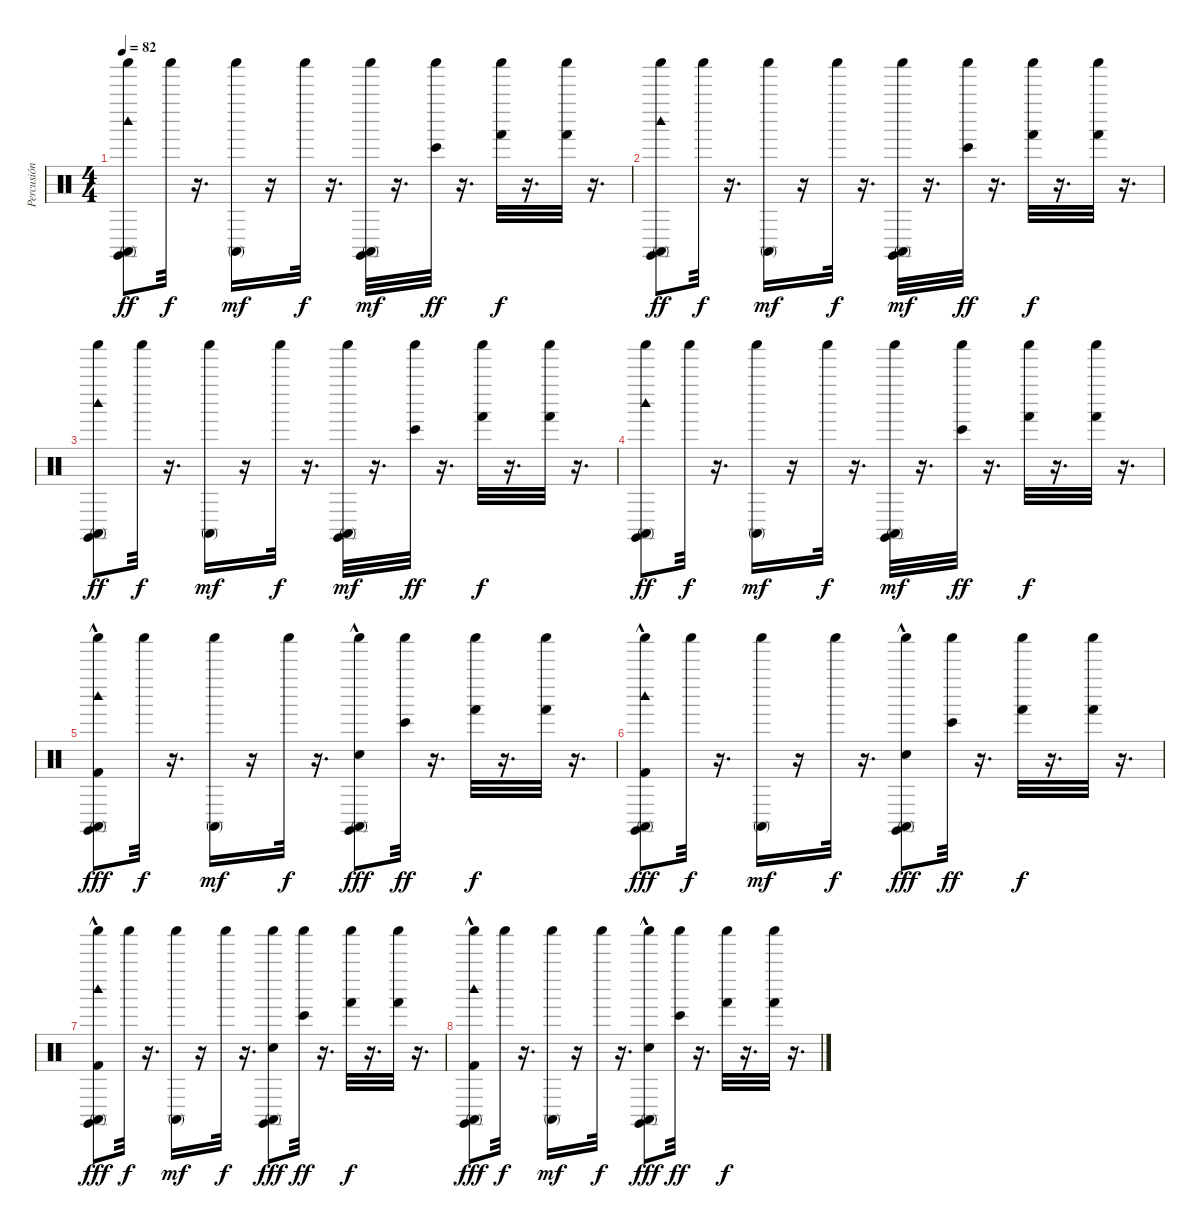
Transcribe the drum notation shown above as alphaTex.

\track ("Percusión" "Percusión") {instrument percussion}
\staff {score}
\articulation defaults
\ts (4 4)
\tempo 82
\clef neutral
\ks c
("Woodblock high (hit)" "Conga high (mute)" "Shaker (hit)" "Claves (hit)").8{dy ff} "Shaker (hit)".32{dy f} r.16{d} ("Shaker (hit)" "Conga high (mute)").16{dy mf} r.16 "Shaker (hit)".32{dy f} r.16{d} ("Claves (hit)" "Shaker (hit)" "Conga high (mute)").32{dy mf} r.16{d} ("Shaker (hit)" "Bongo High (hit)").32{dy ff} r.16{d} ("Shaker (hit)" "Hand (hit)").32{dy f} r.16{d} ("Shaker (hit)" "Hand (hit)").32 r.16{d} |
("Woodblock high (hit)" "Conga high (mute)" "Shaker (hit)" "Claves (hit)").8{dy ff} "Shaker (hit)".32{dy f} r.16{d} ("Shaker (hit)" "Conga high (mute)").16{dy mf} r.16 "Shaker (hit)".32{dy f} r.16{d} ("Claves (hit)" "Shaker (hit)" "Conga high (mute)").32{dy mf} r.16{d} ("Shaker (hit)" "Bongo High (hit)").32{dy ff} r.16{d} ("Shaker (hit)" "Hand (hit)").32{dy f} r.16{d} ("Shaker (hit)" "Hand (hit)").32 r.16{d} |
("Woodblock high (hit)" "Conga high (mute)" "Shaker (hit)" "Claves (hit)").8{dy ff} "Shaker (hit)".32{dy f} r.16{d} ("Shaker (hit)" "Conga high (mute)").16{dy mf} r.16 "Shaker (hit)".32{dy f} r.16{d} ("Claves (hit)" "Shaker (hit)" "Conga high (mute)").32{dy mf} r.16{d} ("Shaker (hit)" "Bongo High (hit)").32{dy ff} r.16{d} ("Shaker (hit)" "Hand (hit)").32{dy f} r.16{d} ("Shaker (hit)" "Hand (hit)").32 r.16{d} |
("Woodblock high (hit)" "Conga high (mute)" "Shaker (hit)" "Claves (hit)").8{dy ff} "Shaker (hit)".32{dy f} r.16{d} ("Shaker (hit)" "Conga high (mute)").16{dy mf} r.16 "Shaker (hit)".32{dy f} r.16{d} ("Claves (hit)" "Shaker (hit)" "Conga high (mute)").32{dy mf} r.16{d} ("Shaker (hit)" "Bongo High (hit)").32{dy ff} r.16{d} ("Shaker (hit)" "Hand (hit)").32{dy f} r.16{d} ("Shaker (hit)" "Hand (hit)").32 r.16{d} |
("Woodblock high (hit)" "Conga high (mute)" "Shaker (hit)" "Claves (hit)" "Kick (hit) 2"{hac}).8{dy fff} "Shaker (hit)".32{dy f} r.16{d} ("Shaker (hit)" "Conga high (mute)").16{dy mf} r.16 "Shaker (hit)".32{dy f} r.16{d} ("Claves (hit)" "Shaker (hit)" "Conga high (mute)" "Electric Snare (hit)"{hac}).8{dy fff} ("Shaker (hit)" "Bongo High (hit)").32{dy ff} r.16{d} ("Shaker (hit)" "Hand (hit)").32{dy f} r.16{d} ("Shaker (hit)" "Hand (hit)").32 r.16{d} |
("Woodblock high (hit)" "Conga high (mute)" "Shaker (hit)" "Claves (hit)" "Kick (hit) 2"{hac}).8{dy fff} "Shaker (hit)".32{dy f} r.16{d} ("Shaker (hit)" "Conga high (mute)").16{dy mf} r.16 "Shaker (hit)".32{dy f} r.16{d} ("Claves (hit)" "Shaker (hit)" "Conga high (mute)" "Electric Snare (hit)"{hac}).8{dy fff} ("Shaker (hit)" "Bongo High (hit)").32{dy ff} r.16{d} ("Shaker (hit)" "Hand (hit)").32{dy f} r.16{d} ("Shaker (hit)" "Hand (hit)").32 r.16{d} |
("Woodblock high (hit)" "Conga high (mute)" "Shaker (hit)" "Claves (hit)" "Kick (hit) 2"{hac}).8{dy fff} "Shaker (hit)".32{dy f} r.16{d} ("Shaker (hit)" "Conga high (mute)").16{dy mf} r.16 "Shaker (hit)".32{dy f} r.16{d} ("Claves (hit)" "Shaker (hit)" "Conga high (mute)" "Electric Snare (hit)").8{dy fff} ("Shaker (hit)" "Bongo High (hit)").32{dy ff} r.16{d} ("Shaker (hit)" "Hand (hit)").32{dy f} r.16{d} ("Shaker (hit)" "Hand (hit)").32 r.16{d} |
("Woodblock high (hit)" "Conga high (mute)" "Shaker (hit)" "Claves (hit)" "Kick (hit) 2"{hac}).8{dy fff} "Shaker (hit)".32{dy f} r.16{d} ("Shaker (hit)" "Conga high (mute)").16{dy mf} r.16 "Shaker (hit)".32{dy f} r.16{d} ("Claves (hit)" "Shaker (hit)" "Conga high (mute)" "Electric Snare (hit)"{hac}).8{dy fff} ("Shaker (hit)" "Bongo High (hit)").32{dy ff} r.16{d} ("Shaker (hit)" "Hand (hit)").32{dy f} r.16{d} ("Shaker (hit)" "Hand (hit)").32 r.16{d}
